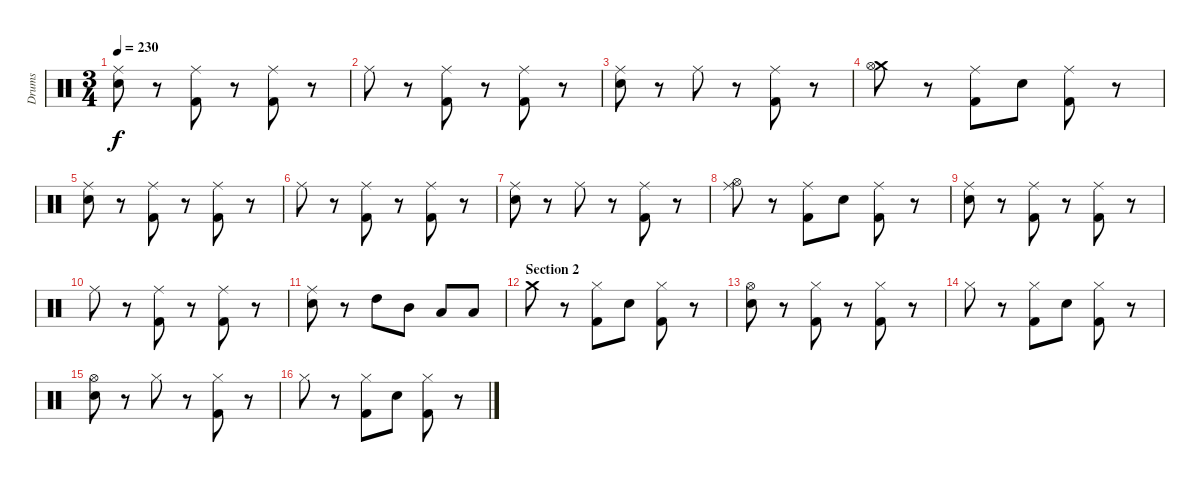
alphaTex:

\track ("Drums" "Drums") {instrument percussion}
\staff {score}
\articulation defaults
\ts (3 4)
\tempo 230
\clef neutral
\ks c
("Ride (middle)" "Electric Snare (hit)").8{dy f} r.8 ("Ride (middle)" "Kick (hit) 2").8 r.8 ("Ride (middle)" "Kick (hit) 2").8 r.8 |
"Ride (middle)".8 r.8 ("Ride (middle)" "Kick (hit) 2").8 r.8 ("Ride (middle)" "Kick (hit) 2").8 r.8 |
("Ride (middle)" "Electric Snare (hit)").8 r.8 "Ride (middle)".8 r.8 ("Ride (middle)" "Kick (hit) 2").8 r.8 |
("Crash medium (hit)" "Hi-Hat (open)").8 r.8 ("Ride (middle)" "Kick (hit) 2").8 "Electric Snare (hit)".8 ("Ride (middle)" "Kick (hit) 2").8 r.8 |
("Ride (middle)" "Electric Snare (hit)").8 r.8 ("Ride (middle)" "Kick (hit) 2").8 r.8 ("Ride (middle)" "Kick (hit) 2").8 r.8 |
"Ride (middle)".8 r.8 ("Ride (middle)" "Kick (hit) 2").8 r.8 ("Ride (middle)" "Kick (hit) 2").8 r.8 |
("Ride (middle)" "Electric Snare (hit)").8 r.8 "Ride (middle)".8 r.8 ("Ride (middle)" "Kick (hit) 2").8 r.8 |
("Ride (middle)" "Hi-Hat (open)").8 r.8 ("Ride (middle)" "Kick (hit) 2").8 "Electric Snare (hit)".8 ("Ride (middle)" "Kick (hit) 2").8 r.8 |
("Ride (middle)" "Electric Snare (hit)").8 r.8 ("Ride (middle)" "Kick (hit) 2").8 r.8 ("Ride (middle)" "Kick (hit) 2").8 r.8 |
"Ride (middle)".8 r.8 ("Ride (middle)" "Kick (hit) 2").8 r.8 ("Ride (middle)" "Kick (hit) 2").8 r.8 |
("Ride (middle)" "Electric Snare (hit)").8 r.8 "High Tom (hit)".8 "Mid Tom (hit)".8 "Low Tom (hit)".8 "Low Tom (hit)".8 |
\section ("" "Section 2")
"Crash medium (hit)".8 r.8 ("Hi-Hat (closed)" "Kick (hit) 2").8 "Electric Snare (hit)".8 ("Hi-Hat (closed)" "Kick (hit) 2").8 r.8 |
("Hi-Hat (open)" "Electric Snare (hit)").8 r.8 ("Hi-Hat (closed)" "Kick (hit) 2").8 r.8 ("Hi-Hat (closed)" "Kick (hit) 2").8 r.8 |
"Hi-Hat (closed)".8 r.8 ("Hi-Hat (closed)" "Kick (hit) 2").8 "Electric Snare (hit)".8 ("Hi-Hat (closed)" "Kick (hit) 2").8 r.8 |
("Hi-Hat (open)" "Electric Snare (hit)").8 r.8 "Hi-Hat (closed)".8 r.8 ("Hi-Hat (closed)" "Kick (hit) 2").8 r.8 |
"Hi-Hat (closed)".8 r.8 ("Hi-Hat (closed)" "Kick (hit) 2").8 "Electric Snare (hit)".8 ("Hi-Hat (closed)" "Kick (hit) 2").8 r.8
